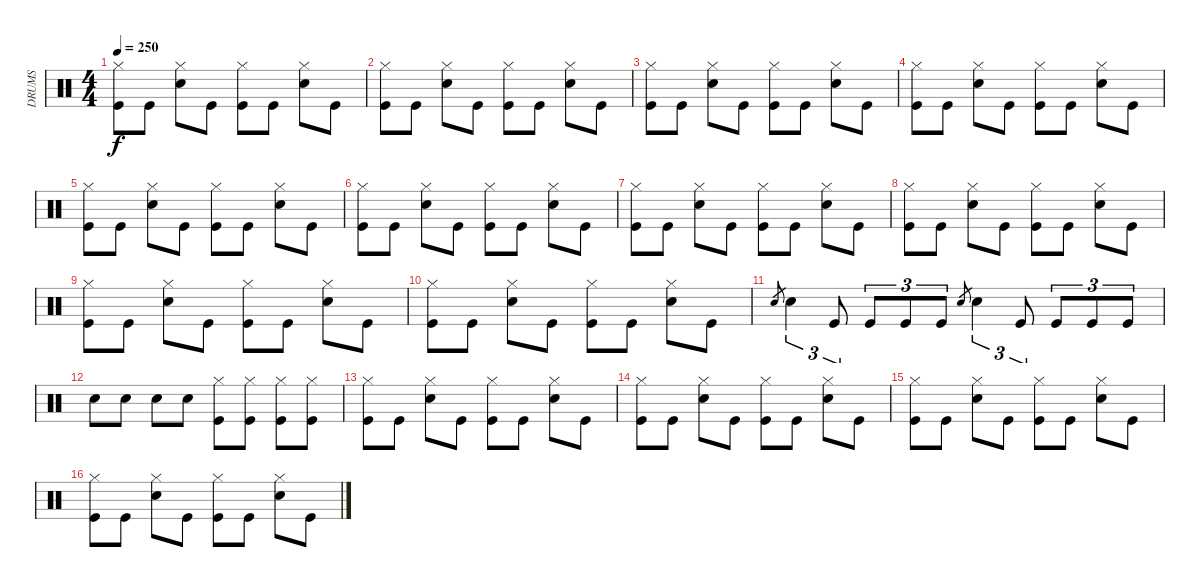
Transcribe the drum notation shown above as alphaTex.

\track ("DRUMS" "DRUMS") {instrument percussion}
\staff {score}
\articulation defaults
\ts (4 4)
\tempo 250
\clef neutral
\ks aminor
("Hi-Hat (closed)" "Kick (hit)").8{dy f} "Kick (hit)".8 ("Hi-Hat (closed)" "Snare (hit) 2").8 "Kick (hit)".8 ("Hi-Hat (closed)" "Kick (hit)").8 "Kick (hit)".8 ("Hi-Hat (closed)" "Snare (hit) 2").8 "Kick (hit)".8 |
("Hi-Hat (closed)" "Kick (hit)").8 "Kick (hit)".8 ("Hi-Hat (closed)" "Snare (hit) 2").8 "Kick (hit)".8 ("Hi-Hat (closed)" "Kick (hit)").8 "Kick (hit)".8 ("Hi-Hat (closed)" "Snare (hit) 2").8 "Kick (hit)".8 |
("Hi-Hat (closed)" "Kick (hit)").8 "Kick (hit)".8 ("Hi-Hat (closed)" "Snare (hit) 2").8 "Kick (hit)".8 ("Hi-Hat (closed)" "Kick (hit)").8 "Kick (hit)".8 ("Hi-Hat (closed)" "Snare (hit) 2").8 "Kick (hit)".8 |
("Hi-Hat (closed)" "Kick (hit)").8 "Kick (hit)".8 ("Hi-Hat (closed)" "Snare (hit) 2").8 "Kick (hit)".8 ("Hi-Hat (closed)" "Kick (hit)").8 "Kick (hit)".8 ("Hi-Hat (closed)" "Snare (hit) 2").8 "Kick (hit)".8 |
("Hi-Hat (closed)" "Kick (hit)").8 "Kick (hit)".8 ("Hi-Hat (closed)" "Snare (hit) 2").8 "Kick (hit)".8 ("Hi-Hat (closed)" "Kick (hit)").8 "Kick (hit)".8 ("Hi-Hat (closed)" "Snare (hit) 2").8 "Kick (hit)".8 |
("Hi-Hat (closed)" "Kick (hit)").8 "Kick (hit)".8 ("Hi-Hat (closed)" "Snare (hit) 2").8 "Kick (hit)".8 ("Hi-Hat (closed)" "Kick (hit)").8 "Kick (hit)".8 ("Hi-Hat (closed)" "Snare (hit) 2").8 "Kick (hit)".8 |
("Hi-Hat (closed)" "Kick (hit)").8 "Kick (hit)".8 ("Hi-Hat (closed)" "Snare (hit) 2").8 "Kick (hit)".8 ("Hi-Hat (closed)" "Kick (hit)").8 "Kick (hit)".8 ("Hi-Hat (closed)" "Snare (hit) 2").8 "Kick (hit)".8 |
("Hi-Hat (closed)" "Kick (hit)").8 "Kick (hit)".8 ("Hi-Hat (closed)" "Snare (hit) 2").8 "Kick (hit)".8 ("Hi-Hat (closed)" "Kick (hit)").8 "Kick (hit)".8 ("Hi-Hat (closed)" "Snare (hit) 2").8 "Kick (hit)".8 |
("Hi-Hat (closed)" "Kick (hit)").8 "Kick (hit)".8 ("Hi-Hat (closed)" "Snare (hit) 2").8 "Kick (hit)".8 ("Hi-Hat (closed)" "Kick (hit)").8 "Kick (hit)".8 ("Hi-Hat (closed)" "Snare (hit) 2").8 "Kick (hit)".8 |
("Hi-Hat (closed)" "Kick (hit)").8 "Kick (hit)".8 ("Hi-Hat (closed)" "Snare (hit) 2").8 "Kick (hit)".8 ("Hi-Hat (closed)" "Kick (hit)").8 "Kick (hit)".8 ("Hi-Hat (closed)" "Snare (hit) 2").8 "Kick (hit)".8 |
"Snare (hit) 2".8{gr} "Snare (hit) 2".4{tu (3 2)} "Kick (hit)".8{tu (3 2)} "Kick (hit)".8{tu (3 2)} "Kick (hit)".8{tu (3 2)} "Kick (hit)".8{tu (3 2)} "Snare (hit) 2".8{gr} "Snare (hit) 2".4{tu (3 2)} "Kick (hit)".8{tu (3 2)} "Kick (hit)".8{tu (3 2)} "Kick (hit)".8{tu (3 2)} "Kick (hit)".8{tu (3 2)} |
"Snare (hit) 2".8 "Snare (hit) 2".8 "Snare (hit) 2".8 "Snare (hit) 2".8 ("Hi-Hat (closed)" "Kick (hit)").8 ("Hi-Hat (closed)" "Kick (hit)").8 ("Hi-Hat (closed)" "Kick (hit)").8 ("Hi-Hat (closed)" "Kick (hit)").8 |
("Hi-Hat (closed)" "Kick (hit)").8 "Kick (hit)".8 ("Hi-Hat (closed)" "Snare (hit) 2").8 "Kick (hit)".8 ("Hi-Hat (closed)" "Kick (hit)").8 "Kick (hit)".8 ("Hi-Hat (closed)" "Snare (hit) 2").8 "Kick (hit)".8 |
("Hi-Hat (closed)" "Kick (hit)").8 "Kick (hit)".8 ("Hi-Hat (closed)" "Snare (hit) 2").8 "Kick (hit)".8 ("Hi-Hat (closed)" "Kick (hit)").8 "Kick (hit)".8 ("Hi-Hat (closed)" "Snare (hit) 2").8 "Kick (hit)".8 |
("Hi-Hat (closed)" "Kick (hit)").8 "Kick (hit)".8 ("Hi-Hat (closed)" "Snare (hit) 2").8 "Kick (hit)".8 ("Hi-Hat (closed)" "Kick (hit)").8 "Kick (hit)".8 ("Hi-Hat (closed)" "Snare (hit) 2").8 "Kick (hit)".8 |
("Hi-Hat (closed)" "Kick (hit)").8 "Kick (hit)".8 ("Hi-Hat (closed)" "Snare (hit) 2").8 "Kick (hit)".8 ("Hi-Hat (closed)" "Kick (hit)").8 "Kick (hit)".8 ("Hi-Hat (closed)" "Snare (hit) 2").8 "Kick (hit)".8
